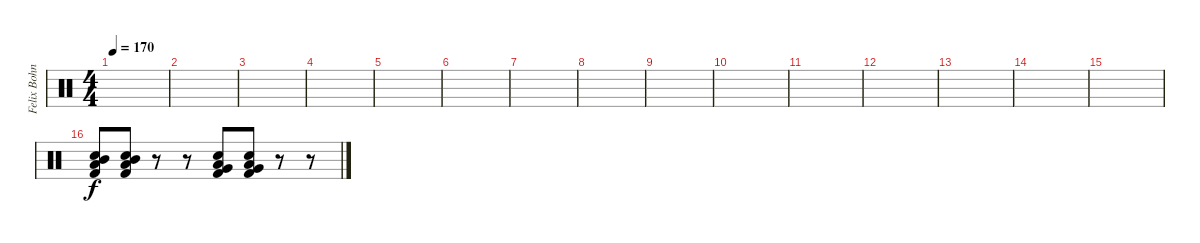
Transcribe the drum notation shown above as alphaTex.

\track ("Felix Bohnke" "Felix Bohn") {instrument percussion}
\staff {score}
\articulation defaults
\ts (4 4)
\tempo 170
\clef neutral
\ks c
|
|
|
|
|
|
|
|
|
|
|
|
|
|
|
("Low Tom (hit)" "Mid Tom (hit)" "Electric Snare (hit)" "Kick (hit) 2").8 ("Low Tom (hit)" "Mid Tom (hit)" "Electric Snare (hit)" "Kick (hit) 2").8 r.8 r.8 ("Very Low Tom (hit)" "Low Tom (hit)" "Electric Snare (hit)" "Kick (hit) 2").8 ("Very Low Tom (hit)" "Low Tom (hit)" "Electric Snare (hit)" "Kick (hit) 2").8 r.8 r.8
